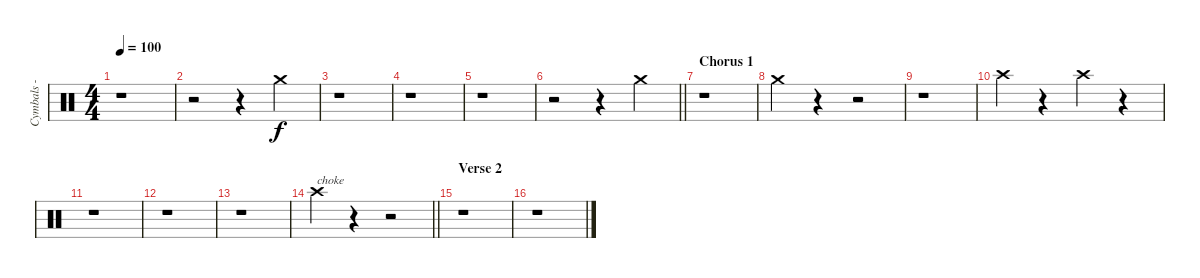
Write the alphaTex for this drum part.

\track ("Cymbals - crash - center" "Cymbals - ") {instrument percussion}
\staff {score}
\articulation defaults
\ts (4 4)
\tempo 100
\clef neutral
\ks c
r.1{dy f} |
r.2 r.4 "Crash medium (hit)".4 |
r.1 |
r.1 |
r.1 |
\barLineRight lightlight
r.2 r.4 "Crash medium (hit)".4 |
\section ("" "Chorus 1")
r.1 |
"Crash medium (hit)".4 r.4 r.2 |
r.1 |
"Crash high (hit)".4 r.4 "Crash high (hit)".4 r.4 |
r.1 |
r.1 |
r.1 |
\barLineRight lightlight "Crash high (hit)".4{txt "choke" volume 0}
r.4 r.2 |
\section ("" "Verse 2")
r.1 |
r.1
